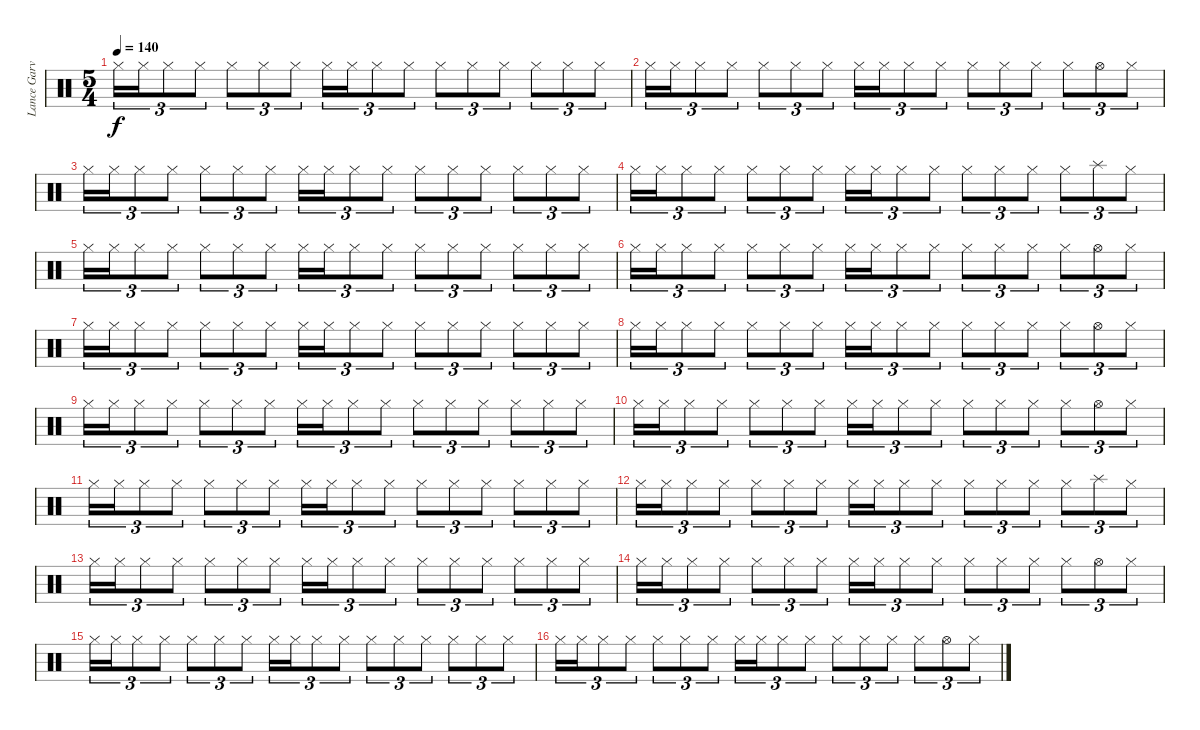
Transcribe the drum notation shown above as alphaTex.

\track ("Lance Garvin - Drums" "Lance Garv") {instrument percussion}
\staff {score}
\articulation defaults
\ts (5 4)
\tempo 140
\clef neutral
\ks c "Hi-Hat (closed)".16{tu (3 2) dy f} "Hi-Hat (closed)".16{tu (3 2)} "Hi-Hat (closed)".8{tu (3 2)} "Hi-Hat (closed)".8{tu (3 2)} "Hi-Hat (closed)".8{tu (3 2)} "Hi-Hat (closed)".8{tu (3 2)} "Hi-Hat (closed)".8{tu (3 2)} "Hi-Hat (closed)".16{tu (3 2)} "Hi-Hat (closed)".16{tu (3 2)} "Hi-Hat (closed)".8{tu (3 2)} "Hi-Hat (closed)".8{tu (3 2)} "Hi-Hat (closed)".8{tu (3 2)} "Hi-Hat (closed)".8{tu (3 2)} "Hi-Hat (closed)".8{tu (3 2)} "Hi-Hat (closed)".8{tu (3 2)} "Hi-Hat (closed)".8{tu (3 2)} "Hi-Hat (closed)".8{tu (3 2)}
|
"Hi-Hat (closed)".16{tu (3 2)} "Hi-Hat (closed)".16{tu (3 2)} "Hi-Hat (closed)".8{tu (3 2)} "Hi-Hat (closed)".8{tu (3 2)} "Hi-Hat (closed)".8{tu (3 2)} "Hi-Hat (closed)".8{tu (3 2)} "Hi-Hat (closed)".8{tu (3 2)} "Hi-Hat (closed)".16{tu (3 2)} "Hi-Hat (closed)".16{tu (3 2)} "Hi-Hat (closed)".8{tu (3 2)} "Hi-Hat (closed)".8{tu (3 2)} "Hi-Hat (closed)".8{tu (3 2)} "Hi-Hat (closed)".8{tu (3 2)} "Hi-Hat (closed)".8{tu (3 2)} "Hi-Hat (closed)".8{tu (3 2)} "Hi-Hat (open)".8{tu (3 2)} "Hi-Hat (closed)".8{tu (3 2)} |
"Hi-Hat (closed)".16{tu (3 2)} "Hi-Hat (closed)".16{tu (3 2)} "Hi-Hat (closed)".8{tu (3 2)} "Hi-Hat (closed)".8{tu (3 2)} "Hi-Hat (closed)".8{tu (3 2)} "Hi-Hat (closed)".8{tu (3 2)} "Hi-Hat (closed)".8{tu (3 2)} "Hi-Hat (closed)".16{tu (3 2)} "Hi-Hat (closed)".16{tu (3 2)} "Hi-Hat (closed)".8{tu (3 2)} "Hi-Hat (closed)".8{tu (3 2)} "Hi-Hat (closed)".8{tu (3 2)} "Hi-Hat (closed)".8{tu (3 2)} "Hi-Hat (closed)".8{tu (3 2)} "Hi-Hat (closed)".8{tu (3 2)} "Hi-Hat (closed)".8{tu (3 2)} "Hi-Hat (closed)".8{tu (3 2)} |
"Hi-Hat (closed)".16{tu (3 2)} "Hi-Hat (closed)".16{tu (3 2)} "Hi-Hat (closed)".8{tu (3 2)} "Hi-Hat (closed)".8{tu (3 2)} "Hi-Hat (closed)".8{tu (3 2)} "Hi-Hat (closed)".8{tu (3 2)} "Hi-Hat (closed)".8{tu (3 2)} "Hi-Hat (closed)".16{tu (3 2)} "Hi-Hat (closed)".16{tu (3 2)} "Hi-Hat (closed)".8{tu (3 2)} "Hi-Hat (closed)".8{tu (3 2)} "Hi-Hat (closed)".8{tu (3 2)} "Hi-Hat (closed)".8{tu (3 2)} "Hi-Hat (closed)".8{tu (3 2)} "Hi-Hat (closed)".8{tu (3 2)} "Splash (hit)".8{tu (3 2)} "Hi-Hat (closed)".8{tu (3 2)} |
"Hi-Hat (closed)".16{tu (3 2)} "Hi-Hat (closed)".16{tu (3 2)} "Hi-Hat (closed)".8{tu (3 2)} "Hi-Hat (closed)".8{tu (3 2)} "Hi-Hat (closed)".8{tu (3 2)} "Hi-Hat (closed)".8{tu (3 2)} "Hi-Hat (closed)".8{tu (3 2)} "Hi-Hat (closed)".16{tu (3 2)} "Hi-Hat (closed)".16{tu (3 2)} "Hi-Hat (closed)".8{tu (3 2)} "Hi-Hat (closed)".8{tu (3 2)} "Hi-Hat (closed)".8{tu (3 2)} "Hi-Hat (closed)".8{tu (3 2)} "Hi-Hat (closed)".8{tu (3 2)} "Hi-Hat (closed)".8{tu (3 2)} "Hi-Hat (closed)".8{tu (3 2)} "Hi-Hat (closed)".8{tu (3 2)} |
"Hi-Hat (closed)".16{tu (3 2)} "Hi-Hat (closed)".16{tu (3 2)} "Hi-Hat (closed)".8{tu (3 2)} "Hi-Hat (closed)".8{tu (3 2)} "Hi-Hat (closed)".8{tu (3 2)} "Hi-Hat (closed)".8{tu (3 2)} "Hi-Hat (closed)".8{tu (3 2)} "Hi-Hat (closed)".16{tu (3 2)} "Hi-Hat (closed)".16{tu (3 2)} "Hi-Hat (closed)".8{tu (3 2)} "Hi-Hat (closed)".8{tu (3 2)} "Hi-Hat (closed)".8{tu (3 2)} "Hi-Hat (closed)".8{tu (3 2)} "Hi-Hat (closed)".8{tu (3 2)} "Hi-Hat (closed)".8{tu (3 2)} "Hi-Hat (open)".8{tu (3 2)} "Hi-Hat (closed)".8{tu (3 2)} |
"Hi-Hat (closed)".16{tu (3 2)} "Hi-Hat (closed)".16{tu (3 2)} "Hi-Hat (closed)".8{tu (3 2)} "Hi-Hat (closed)".8{tu (3 2)} "Hi-Hat (closed)".8{tu (3 2)} "Hi-Hat (closed)".8{tu (3 2)} "Hi-Hat (closed)".8{tu (3 2)} "Hi-Hat (closed)".16{tu (3 2)} "Hi-Hat (closed)".16{tu (3 2)} "Hi-Hat (closed)".8{tu (3 2)} "Hi-Hat (closed)".8{tu (3 2)} "Hi-Hat (closed)".8{tu (3 2)} "Hi-Hat (closed)".8{tu (3 2)} "Hi-Hat (closed)".8{tu (3 2)} "Hi-Hat (closed)".8{tu (3 2)} "Hi-Hat (closed)".8{tu (3 2)} "Hi-Hat (closed)".8{tu (3 2)} |
"Hi-Hat (closed)".16{tu (3 2)} "Hi-Hat (closed)".16{tu (3 2)} "Hi-Hat (closed)".8{tu (3 2)} "Hi-Hat (closed)".8{tu (3 2)} "Hi-Hat (closed)".8{tu (3 2)} "Hi-Hat (closed)".8{tu (3 2)} "Hi-Hat (closed)".8{tu (3 2)} "Hi-Hat (closed)".16{tu (3 2)} "Hi-Hat (closed)".16{tu (3 2)} "Hi-Hat (closed)".8{tu (3 2)} "Hi-Hat (closed)".8{tu (3 2)} "Hi-Hat (closed)".8{tu (3 2)} "Hi-Hat (closed)".8{tu (3 2)} "Hi-Hat (closed)".8{tu (3 2)} "Hi-Hat (closed)".8{tu (3 2)} "Hi-Hat (open)".8{tu (3 2)} "Hi-Hat (closed)".8{tu (3 2)} |
"Hi-Hat (closed)".16{tu (3 2)} "Hi-Hat (closed)".16{tu (3 2)} "Hi-Hat (closed)".8{tu (3 2)} "Hi-Hat (closed)".8{tu (3 2)} "Hi-Hat (closed)".8{tu (3 2)} "Hi-Hat (closed)".8{tu (3 2)} "Hi-Hat (closed)".8{tu (3 2)} "Hi-Hat (closed)".16{tu (3 2)} "Hi-Hat (closed)".16{tu (3 2)} "Hi-Hat (closed)".8{tu (3 2)} "Hi-Hat (closed)".8{tu (3 2)} "Hi-Hat (closed)".8{tu (3 2)} "Hi-Hat (closed)".8{tu (3 2)} "Hi-Hat (closed)".8{tu (3 2)} "Hi-Hat (closed)".8{tu (3 2)} "Hi-Hat (closed)".8{tu (3 2)} "Hi-Hat (closed)".8{tu (3 2)} |
"Hi-Hat (closed)".16{tu (3 2)} "Hi-Hat (closed)".16{tu (3 2)} "Hi-Hat (closed)".8{tu (3 2)} "Hi-Hat (closed)".8{tu (3 2)} "Hi-Hat (closed)".8{tu (3 2)} "Hi-Hat (closed)".8{tu (3 2)} "Hi-Hat (closed)".8{tu (3 2)} "Hi-Hat (closed)".16{tu (3 2)} "Hi-Hat (closed)".16{tu (3 2)} "Hi-Hat (closed)".8{tu (3 2)} "Hi-Hat (closed)".8{tu (3 2)} "Hi-Hat (closed)".8{tu (3 2)} "Hi-Hat (closed)".8{tu (3 2)} "Hi-Hat (closed)".8{tu (3 2)} "Hi-Hat (closed)".8{tu (3 2)} "Hi-Hat (open)".8{tu (3 2)} "Hi-Hat (closed)".8{tu (3 2)} |
"Hi-Hat (closed)".16{tu (3 2)} "Hi-Hat (closed)".16{tu (3 2)} "Hi-Hat (closed)".8{tu (3 2)} "Hi-Hat (closed)".8{tu (3 2)} "Hi-Hat (closed)".8{tu (3 2)} "Hi-Hat (closed)".8{tu (3 2)} "Hi-Hat (closed)".8{tu (3 2)} "Hi-Hat (closed)".16{tu (3 2)} "Hi-Hat (closed)".16{tu (3 2)} "Hi-Hat (closed)".8{tu (3 2)} "Hi-Hat (closed)".8{tu (3 2)} "Hi-Hat (closed)".8{tu (3 2)} "Hi-Hat (closed)".8{tu (3 2)} "Hi-Hat (closed)".8{tu (3 2)} "Hi-Hat (closed)".8{tu (3 2)} "Hi-Hat (closed)".8{tu (3 2)} "Hi-Hat (closed)".8{tu (3 2)} |
"Hi-Hat (closed)".16{tu (3 2)} "Hi-Hat (closed)".16{tu (3 2)} "Hi-Hat (closed)".8{tu (3 2)} "Hi-Hat (closed)".8{tu (3 2)} "Hi-Hat (closed)".8{tu (3 2)} "Hi-Hat (closed)".8{tu (3 2)} "Hi-Hat (closed)".8{tu (3 2)} "Hi-Hat (closed)".16{tu (3 2)} "Hi-Hat (closed)".16{tu (3 2)} "Hi-Hat (closed)".8{tu (3 2)} "Hi-Hat (closed)".8{tu (3 2)} "Hi-Hat (closed)".8{tu (3 2)} "Hi-Hat (closed)".8{tu (3 2)} "Hi-Hat (closed)".8{tu (3 2)} "Hi-Hat (closed)".8{tu (3 2)} "Splash (hit)".8{tu (3 2)} "Hi-Hat (closed)".8{tu (3 2)} |
"Hi-Hat (closed)".16{tu (3 2)} "Hi-Hat (closed)".16{tu (3 2)} "Hi-Hat (closed)".8{tu (3 2)} "Hi-Hat (closed)".8{tu (3 2)} "Hi-Hat (closed)".8{tu (3 2)} "Hi-Hat (closed)".8{tu (3 2)} "Hi-Hat (closed)".8{tu (3 2)} "Hi-Hat (closed)".16{tu (3 2)} "Hi-Hat (closed)".16{tu (3 2)} "Hi-Hat (closed)".8{tu (3 2)} "Hi-Hat (closed)".8{tu (3 2)} "Hi-Hat (closed)".8{tu (3 2)} "Hi-Hat (closed)".8{tu (3 2)} "Hi-Hat (closed)".8{tu (3 2)} "Hi-Hat (closed)".8{tu (3 2)} "Hi-Hat (closed)".8{tu (3 2)} "Hi-Hat (closed)".8{tu (3 2)} |
"Hi-Hat (closed)".16{tu (3 2)} "Hi-Hat (closed)".16{tu (3 2)} "Hi-Hat (closed)".8{tu (3 2)} "Hi-Hat (closed)".8{tu (3 2)} "Hi-Hat (closed)".8{tu (3 2)} "Hi-Hat (closed)".8{tu (3 2)} "Hi-Hat (closed)".8{tu (3 2)} "Hi-Hat (closed)".16{tu (3 2)} "Hi-Hat (closed)".16{tu (3 2)} "Hi-Hat (closed)".8{tu (3 2)} "Hi-Hat (closed)".8{tu (3 2)} "Hi-Hat (closed)".8{tu (3 2)} "Hi-Hat (closed)".8{tu (3 2)} "Hi-Hat (closed)".8{tu (3 2)} "Hi-Hat (closed)".8{tu (3 2)} "Hi-Hat (open)".8{tu (3 2)} "Hi-Hat (closed)".8{tu (3 2)} |
"Hi-Hat (closed)".16{tu (3 2)} "Hi-Hat (closed)".16{tu (3 2)} "Hi-Hat (closed)".8{tu (3 2)} "Hi-Hat (closed)".8{tu (3 2)} "Hi-Hat (closed)".8{tu (3 2)} "Hi-Hat (closed)".8{tu (3 2)} "Hi-Hat (closed)".8{tu (3 2)} "Hi-Hat (closed)".16{tu (3 2)} "Hi-Hat (closed)".16{tu (3 2)} "Hi-Hat (closed)".8{tu (3 2)} "Hi-Hat (closed)".8{tu (3 2)} "Hi-Hat (closed)".8{tu (3 2)} "Hi-Hat (closed)".8{tu (3 2)} "Hi-Hat (closed)".8{tu (3 2)} "Hi-Hat (closed)".8{tu (3 2)} "Hi-Hat (closed)".8{tu (3 2)} "Hi-Hat (closed)".8{tu (3 2)} |
"Hi-Hat (closed)".16{tu (3 2)} "Hi-Hat (closed)".16{tu (3 2)} "Hi-Hat (closed)".8{tu (3 2)} "Hi-Hat (closed)".8{tu (3 2)} "Hi-Hat (closed)".8{tu (3 2)} "Hi-Hat (closed)".8{tu (3 2)} "Hi-Hat (closed)".8{tu (3 2)} "Hi-Hat (closed)".16{tu (3 2)} "Hi-Hat (closed)".16{tu (3 2)} "Hi-Hat (closed)".8{tu (3 2)} "Hi-Hat (closed)".8{tu (3 2)} "Hi-Hat (closed)".8{tu (3 2)} "Hi-Hat (closed)".8{tu (3 2)} "Hi-Hat (closed)".8{tu (3 2)} "Hi-Hat (closed)".8{tu (3 2)} "Hi-Hat (open)".8{tu (3 2)} "Hi-Hat (closed)".8{tu (3 2)}
